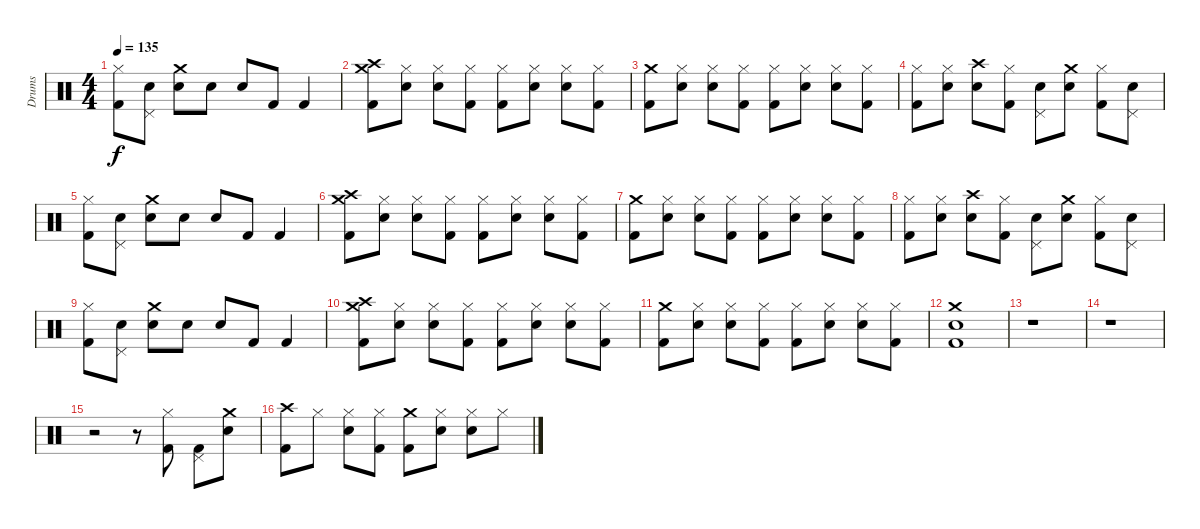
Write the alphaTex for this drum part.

\track ("Drums" "Drums") {instrument percussion}
\staff {score}
\articulation defaults
\ts (4 4)
\tempo 135
\clef neutral
\ks c
("Hi-Hat (closed)" "Kick (hit) 2").8{dy f} ("Pedal Hi-Hat (hit)" "Snare (hit) 2").8 ("Crash medium (hit)" "Snare (hit) 2").8 "Snare (hit) 2".8 "Snare (hit) 2".8 "Kick (hit) 2".8 "Kick (hit) 2".4 |
("Crash high (hit)" "Crash medium (hit)" "Kick (hit) 2").8 ("Hi-Hat (closed)" "Snare (hit) 2").8 ("Hi-Hat (closed)" "Snare (hit) 2").8 ("Hi-Hat (closed)" "Kick (hit) 2").8 ("Hi-Hat (closed)" "Kick (hit) 2").8 ("Hi-Hat (closed)" "Snare (hit) 2").8 ("Hi-Hat (closed)" "Snare (hit) 2").8 ("Hi-Hat (closed)" "Kick (hit) 2").8 |
("Crash medium (hit)" "Kick (hit) 2").8 ("Hi-Hat (closed)" "Snare (hit) 2").8 ("Hi-Hat (closed)" "Snare (hit) 2").8 ("Hi-Hat (closed)" "Kick (hit) 2").8 ("Hi-Hat (closed)" "Kick (hit) 2").8 ("Hi-Hat (closed)" "Snare (hit) 2").8 ("Hi-Hat (closed)" "Snare (hit) 2").8 ("Hi-Hat (closed)" "Kick (hit) 2").8 |
("Hi-Hat (closed)" "Kick (hit) 2").8 ("Hi-Hat (closed)" "Snare (hit) 2").8 ("Crash high (hit)" "Snare (hit) 2").8 ("Hi-Hat (closed)" "Kick (hit) 2").8 ("Pedal Hi-Hat (hit)" "Snare (hit) 2").8 ("Crash medium (hit)" "Snare (hit) 2").8 ("Hi-Hat (closed)" "Kick (hit) 2").8 ("Pedal Hi-Hat (hit)" "Snare (hit) 2").8 |
("Hi-Hat (closed)" "Kick (hit) 2").8 ("Pedal Hi-Hat (hit)" "Snare (hit) 2").8 ("Crash medium (hit)" "Snare (hit) 2").8 "Snare (hit) 2".8 "Snare (hit) 2".8 "Kick (hit) 2".8 "Kick (hit) 2".4 |
("Crash high (hit)" "Crash medium (hit)" "Kick (hit) 2").8 ("Hi-Hat (closed)" "Snare (hit) 2").8 ("Hi-Hat (closed)" "Snare (hit) 2").8 ("Hi-Hat (closed)" "Kick (hit) 2").8 ("Hi-Hat (closed)" "Kick (hit) 2").8 ("Hi-Hat (closed)" "Snare (hit) 2").8 ("Hi-Hat (closed)" "Snare (hit) 2").8 ("Hi-Hat (closed)" "Kick (hit) 2").8 |
("Crash medium (hit)" "Kick (hit) 2").8 ("Hi-Hat (closed)" "Snare (hit) 2").8 ("Hi-Hat (closed)" "Snare (hit) 2").8 ("Hi-Hat (closed)" "Kick (hit) 2").8 ("Hi-Hat (closed)" "Kick (hit) 2").8 ("Hi-Hat (closed)" "Snare (hit) 2").8 ("Hi-Hat (closed)" "Snare (hit) 2").8 ("Hi-Hat (closed)" "Kick (hit) 2").8 |
("Hi-Hat (closed)" "Kick (hit) 2").8 ("Hi-Hat (closed)" "Snare (hit) 2").8 ("Crash high (hit)" "Snare (hit) 2").8 ("Hi-Hat (closed)" "Kick (hit) 2").8 ("Pedal Hi-Hat (hit)" "Snare (hit) 2").8 ("Crash medium (hit)" "Snare (hit) 2").8 ("Hi-Hat (closed)" "Kick (hit) 2").8 ("Pedal Hi-Hat (hit)" "Snare (hit) 2").8 |
("Hi-Hat (closed)" "Kick (hit) 2").8 ("Pedal Hi-Hat (hit)" "Snare (hit) 2").8 ("Crash medium (hit)" "Snare (hit) 2").8 "Snare (hit) 2".8 "Snare (hit) 2".8 "Kick (hit) 2".8 "Kick (hit) 2".4 |
("Crash high (hit)" "Crash medium (hit)" "Kick (hit) 2").8 ("Hi-Hat (closed)" "Snare (hit) 2").8 ("Hi-Hat (closed)" "Snare (hit) 2").8 ("Hi-Hat (closed)" "Kick (hit) 2").8 ("Hi-Hat (closed)" "Kick (hit) 2").8 ("Hi-Hat (closed)" "Snare (hit) 2").8 ("Hi-Hat (closed)" "Snare (hit) 2").8 ("Hi-Hat (closed)" "Kick (hit) 2").8 |
("Crash medium (hit)" "Kick (hit) 2").8 ("Hi-Hat (closed)" "Snare (hit) 2").8 ("Hi-Hat (closed)" "Snare (hit) 2").8 ("Hi-Hat (closed)" "Kick (hit) 2").8 ("Hi-Hat (closed)" "Kick (hit) 2").8 ("Hi-Hat (closed)" "Snare (hit) 2").8 ("Hi-Hat (closed)" "Snare (hit) 2").8 ("Hi-Hat (closed)" "Kick (hit) 2").8 |
("Crash medium (hit)" "Snare (hit) 2" "Kick (hit) 2").1 |
r.1 |
r.1 |
r.2 r.8 ("Hi-Hat (closed)" "Kick (hit) 2").8 ("Pedal Hi-Hat (hit)" "Kick (hit) 2").8 ("Crash medium (hit)" "Snare (hit) 2").8 |
("Crash high (hit)" "Kick (hit) 2").8 "Hi-Hat (closed)".8 ("Hi-Hat (closed)" "Snare (hit) 2").8 ("Hi-Hat (closed)" "Kick (hit) 2").8 ("Crash medium (hit)" "Kick (hit) 2").8 ("Hi-Hat (closed)" "Snare (hit) 2").8 ("Hi-Hat (closed)" "Snare (hit) 2").8 "Hi-Hat (closed)".8
